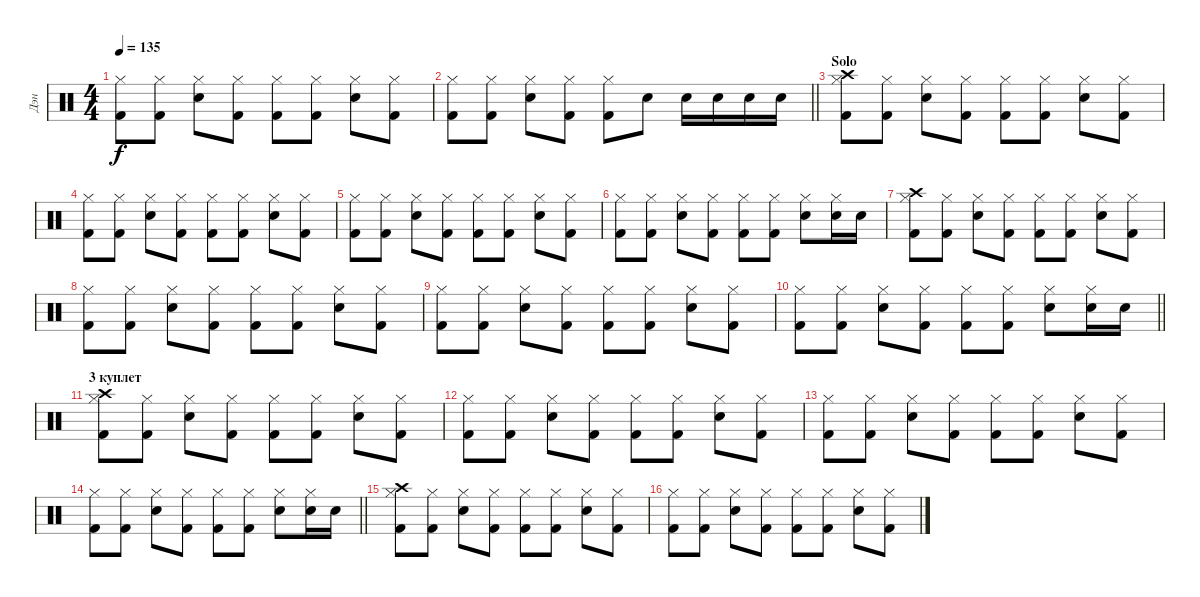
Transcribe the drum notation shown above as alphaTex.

\track ("Дэн" "Дэн") {instrument percussion}
\staff {score}
\articulation defaults
\ts (4 4)
\tempo 135
\clef neutral
\ks c
("Kick (hit) 2" "Hi-Hat (closed)").8{dy f} ("Kick (hit) 2" "Hi-Hat (closed)").8 ("Electric Snare (hit)" "Hi-Hat (closed)").8 ("Kick (hit) 2" "Hi-Hat (closed)").8 ("Kick (hit) 2" "Hi-Hat (closed)").8 ("Kick (hit) 2" "Hi-Hat (closed)").8 ("Electric Snare (hit)" "Hi-Hat (closed)").8 ("Kick (hit) 2" "Hi-Hat (closed)").8 |
\barLineRight lightlight
("Kick (hit) 2" "Hi-Hat (closed)").8 ("Kick (hit) 2" "Hi-Hat (closed)").8 ("Electric Snare (hit)" "Hi-Hat (closed)").8 ("Kick (hit) 2" "Hi-Hat (closed)").8 ("Kick (hit) 2" "Hi-Hat (closed)").8 "Electric Snare (hit)".8 "Electric Snare (hit)".16 "Electric Snare (hit)".16 "Electric Snare (hit)".16 "Electric Snare (hit)".16 |
\section ("" "Solo")
("Kick (hit) 2" "Crash high (hit)" "Hi-Hat (closed)").8 ("Kick (hit) 2" "Hi-Hat (closed)").8 ("Electric Snare (hit)" "Hi-Hat (closed)").8 ("Kick (hit) 2" "Hi-Hat (closed)").8 ("Kick (hit) 2" "Hi-Hat (closed)").8 ("Kick (hit) 2" "Hi-Hat (closed)").8 ("Electric Snare (hit)" "Hi-Hat (closed)").8 ("Kick (hit) 2" "Hi-Hat (closed)").8 |
("Kick (hit) 2" "Hi-Hat (closed)").8 ("Kick (hit) 2" "Hi-Hat (closed)").8 ("Electric Snare (hit)" "Hi-Hat (closed)").8 ("Kick (hit) 2" "Hi-Hat (closed)").8 ("Kick (hit) 2" "Hi-Hat (closed)").8 ("Kick (hit) 2" "Hi-Hat (closed)").8 ("Electric Snare (hit)" "Hi-Hat (closed)").8 ("Kick (hit) 2" "Hi-Hat (closed)").8 |
("Kick (hit) 2" "Hi-Hat (closed)").8 ("Kick (hit) 2" "Hi-Hat (closed)").8 ("Electric Snare (hit)" "Hi-Hat (closed)").8 ("Kick (hit) 2" "Hi-Hat (closed)").8 ("Kick (hit) 2" "Hi-Hat (closed)").8 ("Kick (hit) 2" "Hi-Hat (closed)").8 ("Electric Snare (hit)" "Hi-Hat (closed)").8 ("Kick (hit) 2" "Hi-Hat (closed)").8 |
("Kick (hit) 2" "Hi-Hat (closed)").8 ("Kick (hit) 2" "Hi-Hat (closed)").8 ("Electric Snare (hit)" "Hi-Hat (closed)").8 ("Kick (hit) 2" "Hi-Hat (closed)").8 ("Kick (hit) 2" "Hi-Hat (closed)").8 ("Kick (hit) 2" "Hi-Hat (closed)").8 ("Electric Snare (hit)" "Hi-Hat (closed)").8 ("Electric Snare (hit)" "Hi-Hat (closed)").16 "Electric Snare (hit)".16 |
("Kick (hit) 2" "Crash high (hit)" "Hi-Hat (closed)").8 ("Kick (hit) 2" "Hi-Hat (closed)").8 ("Electric Snare (hit)" "Hi-Hat (closed)").8 ("Kick (hit) 2" "Hi-Hat (closed)").8 ("Kick (hit) 2" "Hi-Hat (closed)").8 ("Kick (hit) 2" "Hi-Hat (closed)").8 ("Electric Snare (hit)" "Hi-Hat (closed)").8 ("Kick (hit) 2" "Hi-Hat (closed)").8 |
("Kick (hit) 2" "Hi-Hat (closed)").8 ("Kick (hit) 2" "Hi-Hat (closed)").8 ("Electric Snare (hit)" "Hi-Hat (closed)").8 ("Kick (hit) 2" "Hi-Hat (closed)").8 ("Kick (hit) 2" "Hi-Hat (closed)").8 ("Kick (hit) 2" "Hi-Hat (closed)").8 ("Electric Snare (hit)" "Hi-Hat (closed)").8 ("Kick (hit) 2" "Hi-Hat (closed)").8 |
("Kick (hit) 2" "Hi-Hat (closed)").8 ("Kick (hit) 2" "Hi-Hat (closed)").8 ("Electric Snare (hit)" "Hi-Hat (closed)").8 ("Kick (hit) 2" "Hi-Hat (closed)").8 ("Kick (hit) 2" "Hi-Hat (closed)").8 ("Kick (hit) 2" "Hi-Hat (closed)").8 ("Electric Snare (hit)" "Hi-Hat (closed)").8 ("Kick (hit) 2" "Hi-Hat (closed)").8 |
\barLineRight lightlight
("Kick (hit) 2" "Hi-Hat (closed)").8 ("Kick (hit) 2" "Hi-Hat (closed)").8 ("Electric Snare (hit)" "Hi-Hat (closed)").8 ("Kick (hit) 2" "Hi-Hat (closed)").8 ("Kick (hit) 2" "Hi-Hat (closed)").8 ("Kick (hit) 2" "Hi-Hat (closed)").8 ("Electric Snare (hit)" "Hi-Hat (closed)").8 ("Electric Snare (hit)" "Hi-Hat (closed)").16 "Electric Snare (hit)".16 |
\section ("" "3 куплет")
("Kick (hit) 2" "Crash high (hit)" "Hi-Hat (closed)").8 ("Kick (hit) 2" "Hi-Hat (closed)").8 ("Electric Snare (hit)" "Hi-Hat (closed)").8 ("Kick (hit) 2" "Hi-Hat (closed)").8 ("Kick (hit) 2" "Hi-Hat (closed)").8 ("Kick (hit) 2" "Hi-Hat (closed)").8 ("Electric Snare (hit)" "Hi-Hat (closed)").8 ("Kick (hit) 2" "Hi-Hat (closed)").8 |
("Kick (hit) 2" "Hi-Hat (closed)").8 ("Kick (hit) 2" "Hi-Hat (closed)").8 ("Electric Snare (hit)" "Hi-Hat (closed)").8 ("Kick (hit) 2" "Hi-Hat (closed)").8 ("Kick (hit) 2" "Hi-Hat (closed)").8 ("Kick (hit) 2" "Hi-Hat (closed)").8 ("Electric Snare (hit)" "Hi-Hat (closed)").8 ("Kick (hit) 2" "Hi-Hat (closed)").8 |
("Kick (hit) 2" "Hi-Hat (closed)").8 ("Kick (hit) 2" "Hi-Hat (closed)").8 ("Electric Snare (hit)" "Hi-Hat (closed)").8 ("Kick (hit) 2" "Hi-Hat (closed)").8 ("Kick (hit) 2" "Hi-Hat (closed)").8 ("Kick (hit) 2" "Hi-Hat (closed)").8 ("Electric Snare (hit)" "Hi-Hat (closed)").8 ("Kick (hit) 2" "Hi-Hat (closed)").8 |
\barLineRight lightlight
("Kick (hit) 2" "Hi-Hat (closed)").8 ("Kick (hit) 2" "Hi-Hat (closed)").8 ("Electric Snare (hit)" "Hi-Hat (closed)").8 ("Kick (hit) 2" "Hi-Hat (closed)").8 ("Kick (hit) 2" "Hi-Hat (closed)").8 ("Kick (hit) 2" "Hi-Hat (closed)").8 ("Electric Snare (hit)" "Hi-Hat (closed)").8 ("Electric Snare (hit)" "Hi-Hat (closed)").16 "Electric Snare (hit)".16 |
("Kick (hit) 2" "Crash high (hit)" "Hi-Hat (closed)").8 ("Kick (hit) 2" "Hi-Hat (closed)").8 ("Electric Snare (hit)" "Hi-Hat (closed)").8 ("Kick (hit) 2" "Hi-Hat (closed)").8 ("Kick (hit) 2" "Hi-Hat (closed)").8 ("Kick (hit) 2" "Hi-Hat (closed)").8 ("Electric Snare (hit)" "Hi-Hat (closed)").8 ("Kick (hit) 2" "Hi-Hat (closed)").8 |
("Kick (hit) 2" "Hi-Hat (closed)").8 ("Kick (hit) 2" "Hi-Hat (closed)").8 ("Electric Snare (hit)" "Hi-Hat (closed)").8 ("Kick (hit) 2" "Hi-Hat (closed)").8 ("Kick (hit) 2" "Hi-Hat (closed)").8 ("Kick (hit) 2" "Hi-Hat (closed)").8 ("Electric Snare (hit)" "Hi-Hat (closed)").8 ("Kick (hit) 2" "Hi-Hat (closed)").8
